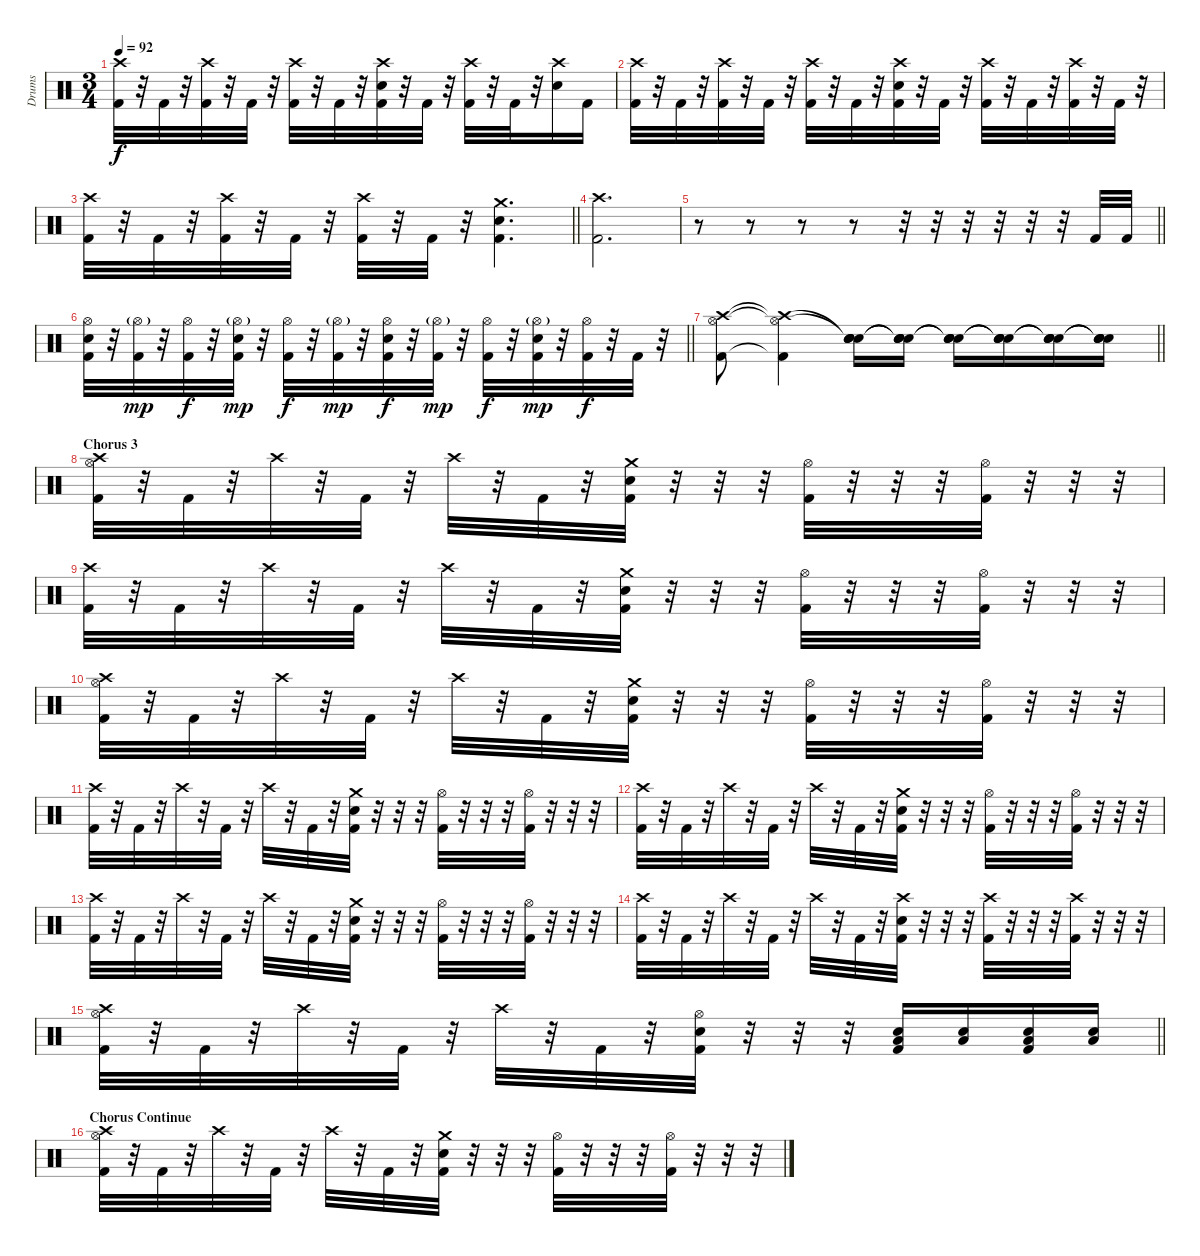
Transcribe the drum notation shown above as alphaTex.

\track ("Drums" "Drums") {instrument percussion}
\staff {score}
\articulation defaults
\ts (3 4)
\tempo 92
\clef neutral
\ks c
("Crash high (hit)" "Kick (hit) 2").32{dy f} r.32 "Kick (hit) 2".32 r.32 ("Crash high (hit)" "Kick (hit) 2").32 r.32 "Kick (hit) 2".32 r.32 ("Crash high (hit)" "Kick (hit) 2").32 r.32 "Kick (hit) 2".32 r.32 ("Crash high (hit)" "Electric Snare (hit)" "Kick (hit) 2").32 r.32 "Kick (hit) 2".32 r.32 ("Crash high (hit)" "Kick (hit) 2").32 r.32 "Kick (hit) 2".32 r.32 ("Crash high (hit)" "Electric Snare (hit)").16 "Kick (hit) 2".16 |
("Crash high (hit)" "Kick (hit) 2").32 r.32 "Kick (hit) 2".32 r.32 ("Crash high (hit)" "Kick (hit) 2").32 r.32 "Kick (hit) 2".32 r.32 ("Crash high (hit)" "Kick (hit) 2").32 r.32 "Kick (hit) 2".32 r.32 ("Crash high (hit)" "Electric Snare (hit)" "Kick (hit) 2").32 r.32 "Kick (hit) 2".32 r.32 ("Crash high (hit)" "Kick (hit) 2").32 r.32 "Kick (hit) 2".32 r.32 ("Crash high (hit)" "Kick (hit) 2").32 r.32 "Kick (hit) 2".32 r.32 |
\barLineRight lightlight
("Crash high (hit)" "Kick (hit) 2").32 r.32 "Kick (hit) 2".32 r.32 ("Crash high (hit)" "Kick (hit) 2").32 r.32 "Kick (hit) 2".32 r.32 ("Crash high (hit)" "Kick (hit) 2").32 r.32 "Kick (hit) 2".32 r.32 ("Crash medium (hit)" "Electric Snare (hit)" "Kick (hit) 2").4{d} |
\section ("" "")
("Crash high (hit)" "Kick (hit) 2").2{d} |
\barLineRight lightlight
r.8 r.8 r.8 r.8 r.32 r.32 r.32 r.32 r.32 r.32 "Kick (hit) 2".32 "Kick (hit) 2".32 |
\section ("" "")
\barLineRight lightlight
("Hi-Hat (open)" "Electric Snare (hit)" "Kick (hit) 2").32 r.32 ("Hi-Hat (open)"{g} "Kick (hit) 2").32{dy mp} r.32 ("Hi-Hat (open)" "Kick (hit) 2").32{dy f} r.32 ("Hi-Hat (open)"{g} "Electric Snare (hit)" "Kick (hit) 2").32{dy mp} r.32 ("Hi-Hat (open)" "Kick (hit) 2").32{dy f} r.32 ("Hi-Hat (open)"{g} "Kick (hit) 2").32{dy mp} r.32 ("Hi-Hat (open)" "Electric Snare (hit)" "Kick (hit) 2").32{dy f} r.32 ("Hi-Hat (open)"{g} "Kick (hit) 2").32{dy mp} r.32 ("Hi-Hat (open)" "Kick (hit) 2").32{dy f} r.32 ("Hi-Hat (open)"{g} "Electric Snare (hit)" "Kick (hit) 2").32{dy mp} r.32 ("Hi-Hat (open)" "Kick (hit) 2").32{dy f} r.32 "Kick (hit) 2".32 r.32 |
\barLineRight lightlight
("Crash high (hit)" "Hi-Hat (open)" "Kick (hit) 2").8 ("Crash high (hit)"{t} "Hi-Hat (open)"{t} "Kick (hit) 2"{t}).4{volume 7} ("Snare (hit)"{t} "Snare (hit)"{t} "Electric Snare (hit)" "Snare (hit)").16{volume 11} ("Snare (hit)"{t} "Snare (hit)"{t} "Electric Snare (hit)" "Snare (hit)"{t}).16 ("Snare (hit)"{t} "Snare (hit)"{t} "Electric Snare (hit)" "Snare (hit)"{t}).16 ("Snare (hit)"{t} "Snare (hit)"{t} "Electric Snare (hit)" "Snare (hit)"{t}).16 ("Snare (hit)"{t} "Snare (hit)"{t} "Electric Snare (hit)" "Snare (hit)"{t}).16 ("Snare (hit)"{t} "Snare (hit)"{t} "Electric Snare (hit)" "Snare (hit)"{t}).16 |
\section ("" "Chorus 3")
("Crash high (hit)" "Hi-Hat (open)" "Kick (hit) 2").32 r.32 "Kick (hit) 2".32 r.32 "Crash high (hit)".32 r.32 "Kick (hit) 2".32 r.32 "Crash high (hit)".32 r.32 "Kick (hit) 2".32 r.32 ("Crash medium (hit)" "Electric Snare (hit)" "Kick (hit) 2").32 r.32 r.32 r.32 ("Hi-Hat (open)" "Kick (hit) 2").32 r.32 r.32 r.32 ("Hi-Hat (open)" "Kick (hit) 2").32 r.32 r.32 r.32 |
("Crash high (hit)" "Kick (hit) 2").32 r.32 "Kick (hit) 2".32 r.32 "Crash high (hit)".32 r.32 "Kick (hit) 2".32 r.32 "Crash high (hit)".32 r.32 "Kick (hit) 2".32 r.32 ("Crash medium (hit)" "Electric Snare (hit)" "Kick (hit) 2").32 r.32 r.32 r.32 ("Hi-Hat (open)" "Kick (hit) 2").32 r.32 r.32 r.32 ("Hi-Hat (open)" "Kick (hit) 2").32 r.32 r.32 r.32 |
("Crash high (hit)" "Hi-Hat (open)" "Kick (hit) 2").32 r.32 "Kick (hit) 2".32 r.32 "Crash high (hit)".32 r.32 "Kick (hit) 2".32 r.32 "Crash high (hit)".32 r.32 "Kick (hit) 2".32 r.32 ("Crash medium (hit)" "Electric Snare (hit)" "Kick (hit) 2").32 r.32 r.32 r.32 ("Hi-Hat (open)" "Kick (hit) 2").32 r.32 r.32 r.32 ("Hi-Hat (open)" "Kick (hit) 2").32 r.32 r.32 r.32 |
("Crash high (hit)" "Kick (hit) 2").32 r.32 "Kick (hit) 2".32 r.32 "Crash high (hit)".32 r.32 "Kick (hit) 2".32 r.32 "Crash high (hit)".32 r.32 "Kick (hit) 2".32 r.32 ("Crash medium (hit)" "Electric Snare (hit)" "Kick (hit) 2").32 r.32 r.32 r.32 ("Hi-Hat (open)" "Kick (hit) 2").32 r.32 r.32 r.32 ("Hi-Hat (open)" "Kick (hit) 2").32 r.32 r.32 r.32 |
("Crash high (hit)" "Kick (hit) 2").32 r.32 "Kick (hit) 2".32 r.32 "Crash high (hit)".32 r.32 "Kick (hit) 2".32 r.32 "Crash high (hit)".32 r.32 "Kick (hit) 2".32 r.32 ("Crash medium (hit)" "Electric Snare (hit)" "Kick (hit) 2").32 r.32 r.32 r.32 ("Hi-Hat (open)" "Kick (hit) 2").32 r.32 r.32 r.32 ("Hi-Hat (open)" "Kick (hit) 2").32 r.32 r.32 r.32 |
("Crash high (hit)" "Kick (hit) 2").32 r.32 "Kick (hit) 2".32 r.32 "Crash high (hit)".32 r.32 "Kick (hit) 2".32 r.32 "Crash high (hit)".32 r.32 "Kick (hit) 2".32 r.32 ("Crash medium (hit)" "Electric Snare (hit)" "Kick (hit) 2").32 r.32 r.32 r.32 ("Hi-Hat (open)" "Kick (hit) 2").32 r.32 r.32 r.32 ("Hi-Hat (open)" "Kick (hit) 2").32 r.32 r.32 r.32 |
("Crash high (hit)" "Kick (hit) 2").32 r.32 "Kick (hit) 2".32 r.32 "Crash high (hit)".32 r.32 "Kick (hit) 2".32 r.32 "Crash high (hit)".32 r.32 "Kick (hit) 2".32 r.32 ("Crash high (hit)" "Electric Snare (hit)" "Kick (hit) 2").32 r.32 r.32 r.32 ("Crash high (hit)" "Kick (hit) 2").32 r.32 r.32 r.32 ("Crash high (hit)" "Kick (hit) 2").32 r.32 r.32 r.32 |
\barLineRight lightlight
("Crash high (hit)" "Hi-Hat (open)" "Kick (hit) 2").32 r.32 "Kick (hit) 2".32 r.32 "Crash high (hit)".32 r.32 "Kick (hit) 2".32 r.32 "Crash high (hit)".32 r.32 "Kick (hit) 2".32 r.32 ("Hi-Hat (open)" "Electric Snare (hit)" "Kick (hit) 2").32 r.32 r.32 r.32 ("Electric Snare (hit)" "Low Floor Tom (hit)" "Kick (hit) 2").16 ("Electric Snare (hit)" "Low Floor Tom (hit)").16 ("Electric Snare (hit)" "Low Floor Tom (hit)" "Kick (hit) 2").16 ("Electric Snare (hit)" "Low Floor Tom (hit)").16 |
\section ("" "Chorus Continue")
("Crash high (hit)" "Hi-Hat (open)" "Kick (hit) 2").32 r.32 "Kick (hit) 2".32 r.32 "Crash high (hit)".32 r.32 "Kick (hit) 2".32 r.32 "Crash high (hit)".32 r.32 "Kick (hit) 2".32 r.32 ("Crash medium (hit)" "Electric Snare (hit)" "Kick (hit) 2").32 r.32 r.32 r.32 ("Hi-Hat (open)" "Kick (hit) 2").32 r.32 r.32 r.32 ("Hi-Hat (open)" "Kick (hit) 2").32 r.32 r.32 r.32
